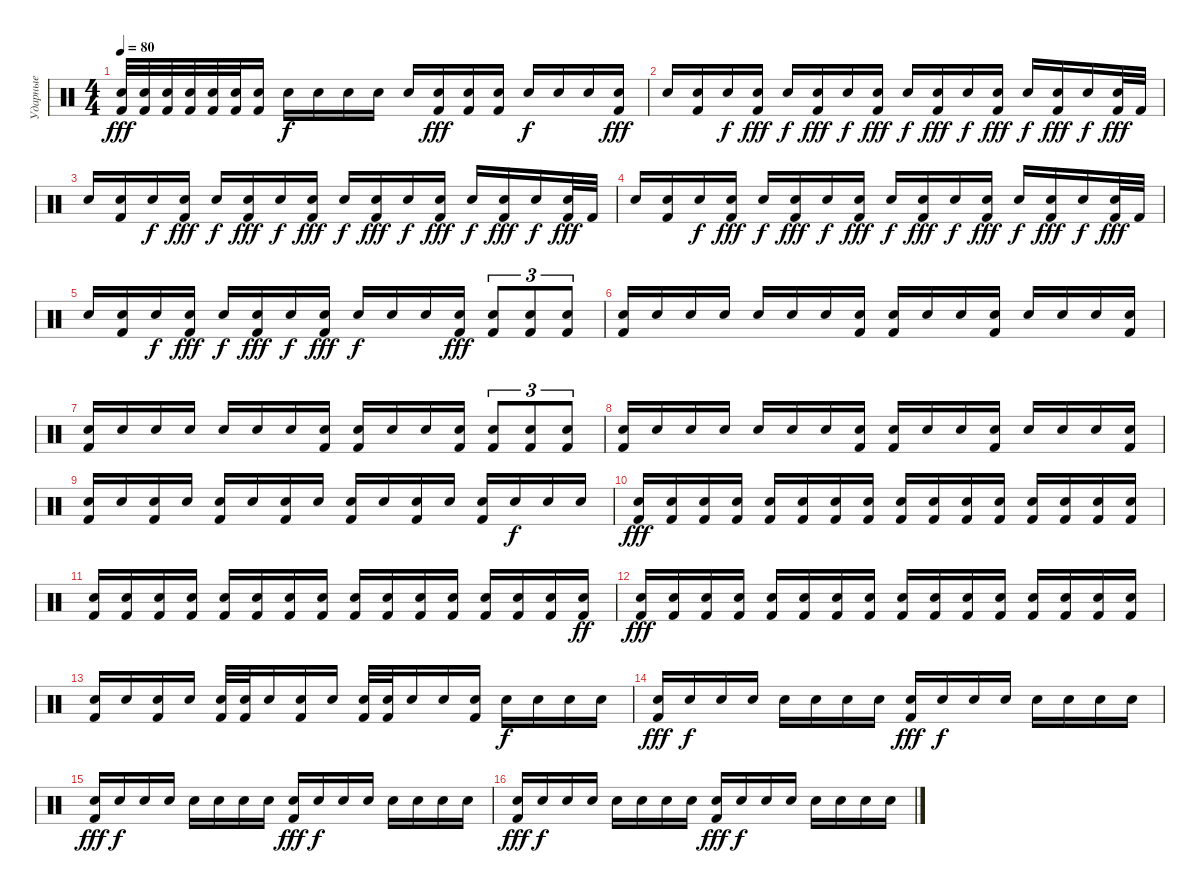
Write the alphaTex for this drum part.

\track ("Ударные" "Ударные") {instrument percussion}
\staff
\articulation defaults
\ts (4 4)
\tempo 80
\clef neutral
\ks c
("Kick (hit) 2" "Snare (hit)").32{dy fff} ("Kick (hit) 2" "Snare (hit)").32 ("Kick (hit) 2" "Snare (hit)").32 ("Kick (hit) 2" "Snare (hit)").32 ("Kick (hit) 2" "Snare (hit)").32 ("Kick (hit) 2" "Snare (hit)").32 ("Kick (hit) 2" "Snare (hit)").16 "Snare (hit)".16{dy f} "Snare (hit)".16 "Snare (hit)".16 "Snare (hit)".16 "Snare (hit)".16 ("Kick (hit) 2" "Snare (hit)").16{dy fff} ("Kick (hit) 2" "Snare (hit)").16 ("Kick (hit) 2" "Snare (hit)").16 "Snare (hit)".16{dy f} "Snare (hit)".16 "Snare (hit)".16 ("Kick (hit) 2" "Snare (hit)").16{dy fff} |
"Snare (hit)".16 ("Kick (hit) 2" "Snare (hit)").16 "Snare (hit)".16{dy f} ("Kick (hit) 2" "Snare (hit)").16{dy fff} "Snare (hit)".16{dy f} ("Kick (hit) 2" "Snare (hit)").16{dy fff} "Snare (hit)".16{dy f} ("Kick (hit) 2" "Snare (hit)").16{dy fff} "Snare (hit)".16{dy f} ("Kick (hit) 2" "Snare (hit)").16{dy fff} "Snare (hit)".16{dy f} ("Kick (hit) 2" "Snare (hit)").16{dy fff} "Snare (hit)".16{dy f} ("Kick (hit) 2" "Snare (hit)").16{dy fff} "Snare (hit)".16{dy f} ("Kick (hit) 2" "Snare (hit)").32{dy fff} "Kick (hit) 2".32 |
"Snare (hit)".16 ("Kick (hit) 2" "Snare (hit)").16 "Snare (hit)".16{dy f} ("Kick (hit) 2" "Snare (hit)").16{dy fff} "Snare (hit)".16{dy f} ("Kick (hit) 2" "Snare (hit)").16{dy fff} "Snare (hit)".16{dy f} ("Kick (hit) 2" "Snare (hit)").16{dy fff} "Snare (hit)".16{dy f} ("Kick (hit) 2" "Snare (hit)").16{dy fff} "Snare (hit)".16{dy f} ("Kick (hit) 2" "Snare (hit)").16{dy fff} "Snare (hit)".16{dy f} ("Kick (hit) 2" "Snare (hit)").16{dy fff} "Snare (hit)".16{dy f} ("Kick (hit) 2" "Snare (hit)").32{dy fff} "Kick (hit) 2".32 |
"Snare (hit)".16 ("Kick (hit) 2" "Snare (hit)").16 "Snare (hit)".16{dy f} ("Kick (hit) 2" "Snare (hit)").16{dy fff} "Snare (hit)".16{dy f} ("Kick (hit) 2" "Snare (hit)").16{dy fff} "Snare (hit)".16{dy f} ("Kick (hit) 2" "Snare (hit)").16{dy fff} "Snare (hit)".16{dy f} ("Kick (hit) 2" "Snare (hit)").16{dy fff} "Snare (hit)".16{dy f} ("Kick (hit) 2" "Snare (hit)").16{dy fff} "Snare (hit)".16{dy f} ("Kick (hit) 2" "Snare (hit)").16{dy fff} "Snare (hit)".16{dy f} ("Kick (hit) 2" "Snare (hit)").32{dy fff} "Kick (hit) 2".32 |
"Snare (hit)".16 ("Kick (hit) 2" "Snare (hit)").16 "Snare (hit)".16{dy f} ("Kick (hit) 2" "Snare (hit)").16{dy fff} "Snare (hit)".16{dy f} ("Kick (hit) 2" "Snare (hit)").16{dy fff} "Snare (hit)".16{dy f} ("Kick (hit) 2" "Snare (hit)").16{dy fff} "Snare (hit)".16{dy f} "Snare (hit)".16 "Snare (hit)".16 ("Kick (hit) 2" "Snare (hit)").16{dy fff} ("Kick (hit) 2" "Snare (hit)").8{tu (3 2)} ("Kick (hit) 2" "Snare (hit)").8{tu (3 2)} ("Kick (hit) 2" "Snare (hit)").8{tu (3 2)} |
("Kick (hit) 2" "Snare (hit)").16 "Snare (hit)".16 "Snare (hit)".16 "Snare (hit)".16 "Snare (hit)".16 "Snare (hit)".16 "Snare (hit)".16 ("Kick (hit) 2" "Snare (hit)").16 ("Kick (hit) 2" "Snare (hit)").16 "Snare (hit)".16 "Snare (hit)".16 ("Kick (hit) 2" "Snare (hit)").16 "Snare (hit)".16 "Snare (hit)".16 "Snare (hit)".16 ("Kick (hit) 2" "Snare (hit)").16 |
("Kick (hit) 2" "Snare (hit)").16 "Snare (hit)".16 "Snare (hit)".16 "Snare (hit)".16 "Snare (hit)".16 "Snare (hit)".16 "Snare (hit)".16 ("Kick (hit) 2" "Snare (hit)").16 ("Kick (hit) 2" "Snare (hit)").16 "Snare (hit)".16 "Snare (hit)".16 ("Kick (hit) 2" "Snare (hit)").16 ("Kick (hit) 2" "Snare (hit)").8{tu (3 2)} ("Kick (hit) 2" "Snare (hit)").8{tu (3 2)} ("Kick (hit) 2" "Snare (hit)").8{tu (3 2)} |
("Kick (hit) 2" "Snare (hit)").16 "Snare (hit)".16 "Snare (hit)".16 "Snare (hit)".16 "Snare (hit)".16 "Snare (hit)".16 "Snare (hit)".16 ("Kick (hit) 2" "Snare (hit)").16 ("Kick (hit) 2" "Snare (hit)").16 "Snare (hit)".16 "Snare (hit)".16 ("Kick (hit) 2" "Snare (hit)").16 "Snare (hit)".16 "Snare (hit)".16 "Snare (hit)".16 ("Kick (hit) 2" "Snare (hit)").16 |
("Kick (hit) 2" "Snare (hit)").16 "Snare (hit)".16 ("Kick (hit) 2" "Snare (hit)").16 "Snare (hit)".16 ("Kick (hit) 2" "Snare (hit)").16 "Snare (hit)".16 ("Kick (hit) 2" "Snare (hit)").16 "Snare (hit)".16 ("Kick (hit) 2" "Snare (hit)").16 "Snare (hit)".16 ("Kick (hit) 2" "Snare (hit)").16 "Snare (hit)".16 ("Kick (hit) 2" "Snare (hit)").16 "Snare (hit)".16{dy f} "Snare (hit)".16 "Snare (hit)".16 |
("Kick (hit) 2" "Snare (hit)").16{dy fff} ("Kick (hit) 2" "Snare (hit)").16 ("Kick (hit) 2" "Snare (hit)").16 ("Kick (hit) 2" "Snare (hit)").16 ("Kick (hit) 2" "Snare (hit)").16 ("Kick (hit) 2" "Snare (hit)").16 ("Kick (hit) 2" "Snare (hit)").16 ("Kick (hit) 2" "Snare (hit)").16 ("Kick (hit) 2" "Snare (hit)").16 ("Kick (hit) 2" "Snare (hit)").16 ("Kick (hit) 2" "Snare (hit)").16 ("Kick (hit) 2" "Snare (hit)").16 ("Kick (hit) 2" "Snare (hit)").16 ("Kick (hit) 2" "Snare (hit)").16 ("Kick (hit) 2" "Snare (hit)").16 ("Kick (hit) 2" "Snare (hit)").16 |
("Kick (hit) 2" "Snare (hit)").16 ("Kick (hit) 2" "Snare (hit)").16 ("Kick (hit) 2" "Snare (hit)").16 ("Kick (hit) 2" "Snare (hit)").16 ("Kick (hit) 2" "Snare (hit)").16 ("Kick (hit) 2" "Snare (hit)").16 ("Kick (hit) 2" "Snare (hit)").16 ("Kick (hit) 2" "Snare (hit)").16 ("Kick (hit) 2" "Snare (hit)").16 ("Kick (hit) 2" "Snare (hit)").16 ("Kick (hit) 2" "Snare (hit)").16 ("Kick (hit) 2" "Snare (hit)").16 ("Kick (hit) 2" "Snare (hit)").16 ("Kick (hit) 2" "Snare (hit)").16 ("Kick (hit) 2" "Snare (hit)").16 ("Kick (hit) 2" "Snare (hit)").16{dy ff} |
("Kick (hit) 2" "Snare (hit)").16{dy fff} ("Kick (hit) 2" "Snare (hit)").16 ("Kick (hit) 2" "Snare (hit)").16 ("Kick (hit) 2" "Snare (hit)").16 ("Kick (hit) 2" "Snare (hit)").16 ("Kick (hit) 2" "Snare (hit)").16 ("Kick (hit) 2" "Snare (hit)").16 ("Kick (hit) 2" "Snare (hit)").16 ("Kick (hit) 2" "Snare (hit)").16 ("Kick (hit) 2" "Snare (hit)").16 ("Kick (hit) 2" "Snare (hit)").16 ("Kick (hit) 2" "Snare (hit)").16 ("Kick (hit) 2" "Snare (hit)").16 ("Kick (hit) 2" "Snare (hit)").16 ("Kick (hit) 2" "Snare (hit)").16 ("Kick (hit) 2" "Snare (hit)").16 |
("Kick (hit) 2" "Snare (hit)").16 "Snare (hit)".16 ("Kick (hit) 2" "Snare (hit)").16 "Snare (hit)".16 ("Kick (hit) 2" "Snare (hit)").32 ("Kick (hit) 2" "Snare (hit)").32 "Snare (hit)".16 ("Kick (hit) 2" "Snare (hit)").16 "Snare (hit)".16 ("Kick (hit) 2" "Snare (hit)").32 ("Kick (hit) 2" "Snare (hit)").32 "Snare (hit)".16 "Snare (hit)".16 ("Kick (hit) 2" "Snare (hit)").16 "Snare (hit)".16{dy f} "Snare (hit)".16 "Snare (hit)".16 "Snare (hit)".16 |
("Kick (hit) 2" "Snare (hit)").16{dy fff} "Snare (hit)".16{dy f} "Snare (hit)".16 "Snare (hit)".16 "Snare (hit)".16 "Snare (hit)".16 "Snare (hit)".16 "Snare (hit)".16 ("Kick (hit) 2" "Snare (hit)").16{dy fff} "Snare (hit)".16{dy f} "Snare (hit)".16 "Snare (hit)".16 "Snare (hit)".16 "Snare (hit)".16 "Snare (hit)".16 "Snare (hit)".16 |
("Kick (hit) 2" "Snare (hit)").16{dy fff} "Snare (hit)".16{dy f} "Snare (hit)".16 "Snare (hit)".16 "Snare (hit)".16 "Snare (hit)".16 "Snare (hit)".16 "Snare (hit)".16 ("Kick (hit) 2" "Snare (hit)").16{dy fff} "Snare (hit)".16{dy f} "Snare (hit)".16 "Snare (hit)".16 "Snare (hit)".16 "Snare (hit)".16 "Snare (hit)".16 "Snare (hit)".16 |
("Kick (hit) 2" "Snare (hit)").16{dy fff} "Snare (hit)".16{dy f} "Snare (hit)".16 "Snare (hit)".16 "Snare (hit)".16 "Snare (hit)".16 "Snare (hit)".16 "Snare (hit)".16 ("Kick (hit) 2" "Snare (hit)").16{dy fff} "Snare (hit)".16{dy f} "Snare (hit)".16 "Snare (hit)".16 "Snare (hit)".16 "Snare (hit)".16 "Snare (hit)".16 "Snare (hit)".16
